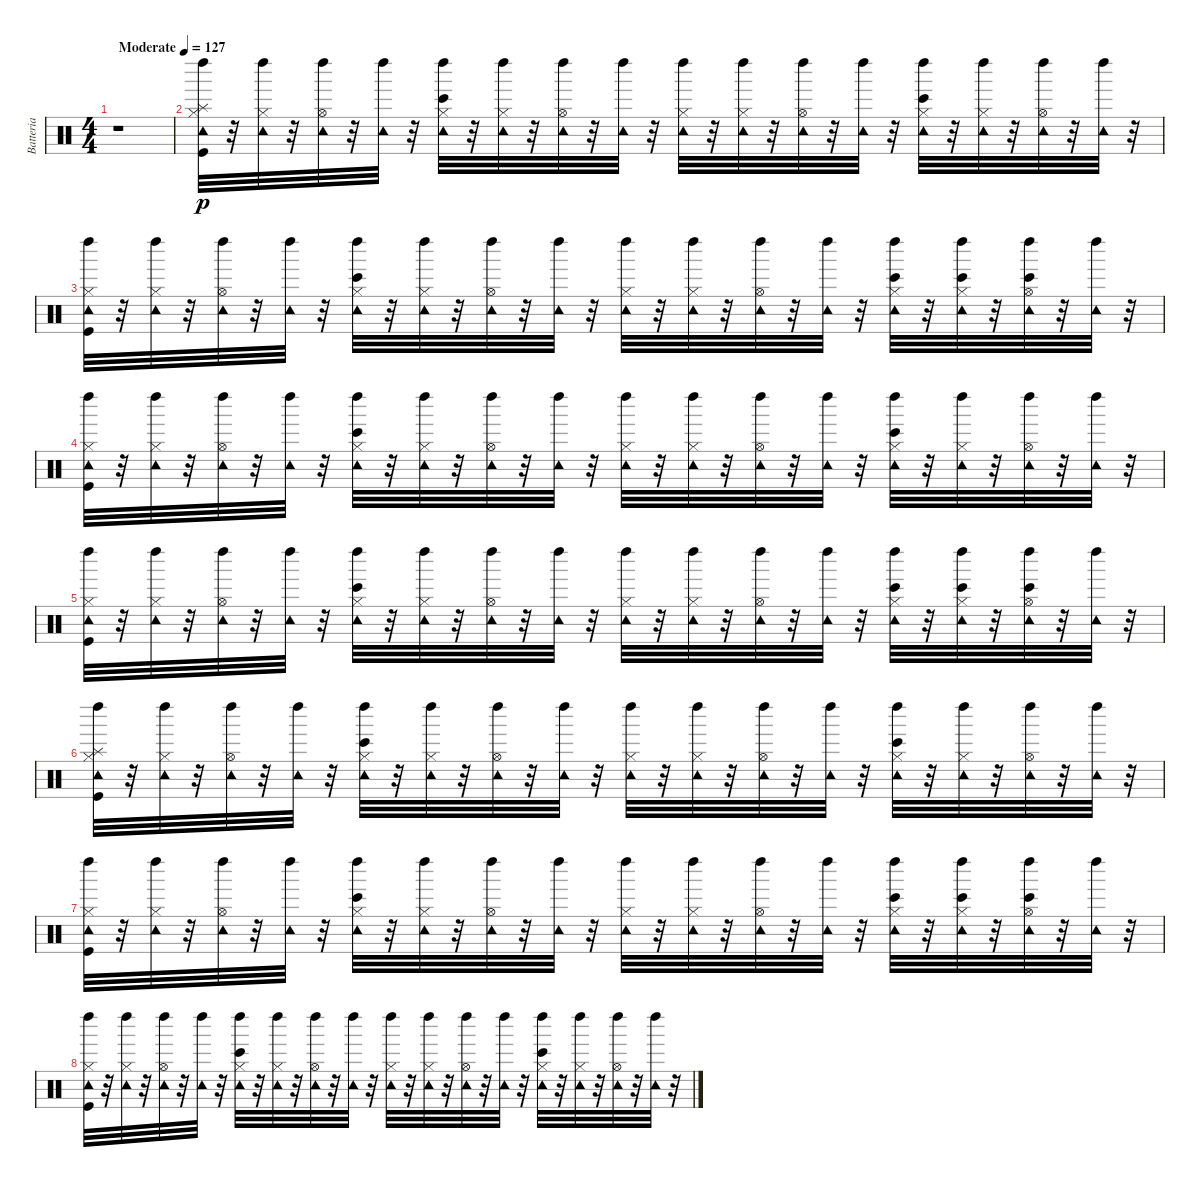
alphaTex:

\track ("Batteria" "Batteria") {instrument percussion}
\staff {score}
\articulation defaults
\ts (4 4)
\tempo (127 "Moderate")
\clef neutral
\ks c
r.1{dy p} |
("Kick (hit)" "Hi-Hat (closed)" "Tambourine (hit)" "Splash (hit)" "Left Maraca (hit)").32 r.32 ("Hi-Hat (closed)" "Tambourine (hit)" "Left Maraca (hit)").32 r.32 ("Hi-Hat (open)" "Tambourine (hit)" "Left Maraca (hit)").32 r.32 ("Tambourine (hit)" "Left Maraca (hit)").32 r.32 ("Bongo High (hit)" "Hi-Hat (closed)" "Tambourine (hit)" "Left Maraca (hit)").32 r.32 ("Hi-Hat (closed)" "Tambourine (hit)" "Left Maraca (hit)").32 r.32 ("Hi-Hat (open)" "Tambourine (hit)" "Left Maraca (hit)").32 r.32 ("Tambourine (hit)" "Left Maraca (hit)").32 r.32 ("Hi-Hat (closed)" "Tambourine (hit)" "Left Maraca (hit)").32 r.32 ("Hi-Hat (closed)" "Tambourine (hit)" "Left Maraca (hit)").32 r.32 ("Hi-Hat (open)" "Tambourine (hit)" "Left Maraca (hit)").32 r.32 ("Tambourine (hit)" "Left Maraca (hit)").32 r.32 ("Bongo High (hit)" "Hi-Hat (closed)" "Tambourine (hit)" "Left Maraca (hit)").32 r.32 ("Hi-Hat (closed)" "Tambourine (hit)" "Left Maraca (hit)").32 r.32 ("Hi-Hat (open)" "Tambourine (hit)" "Left Maraca (hit)").32 r.32 ("Tambourine (hit)" "Left Maraca (hit)").32 r.32 |
("Kick (hit)" "Hi-Hat (closed)" "Tambourine (hit)" "Left Maraca (hit)").32 r.32 ("Hi-Hat (closed)" "Tambourine (hit)" "Left Maraca (hit)").32 r.32 ("Hi-Hat (open)" "Tambourine (hit)" "Left Maraca (hit)").32 r.32 ("Tambourine (hit)" "Left Maraca (hit)").32 r.32 ("Bongo High (hit)" "Hi-Hat (closed)" "Tambourine (hit)" "Left Maraca (hit)").32 r.32 ("Hi-Hat (closed)" "Tambourine (hit)" "Left Maraca (hit)").32 r.32 ("Hi-Hat (open)" "Tambourine (hit)" "Left Maraca (hit)").32 r.32 ("Tambourine (hit)" "Left Maraca (hit)").32 r.32 ("Hi-Hat (closed)" "Tambourine (hit)" "Left Maraca (hit)").32 r.32 ("Hi-Hat (closed)" "Tambourine (hit)" "Left Maraca (hit)").32 r.32 ("Hi-Hat (open)" "Tambourine (hit)" "Left Maraca (hit)").32 r.32 ("Tambourine (hit)" "Left Maraca (hit)").32 r.32 ("Bongo High (hit)" "Hi-Hat (closed)" "Tambourine (hit)" "Left Maraca (hit)").32 r.32 ("Bongo High (hit)" "Hi-Hat (closed)" "Tambourine (hit)" "Left Maraca (hit)").32 r.32 ("Bongo High (hit)" "Hi-Hat (open)" "Tambourine (hit)" "Left Maraca (hit)").32 r.32 ("Tambourine (hit)" "Left Maraca (hit)").32 r.32 |
("Kick (hit)" "Hi-Hat (closed)" "Tambourine (hit)" "Left Maraca (hit)").32 r.32 ("Hi-Hat (closed)" "Tambourine (hit)" "Left Maraca (hit)").32 r.32 ("Hi-Hat (open)" "Tambourine (hit)" "Left Maraca (hit)").32 r.32 ("Tambourine (hit)" "Left Maraca (hit)").32 r.32 ("Bongo High (hit)" "Hi-Hat (closed)" "Tambourine (hit)" "Left Maraca (hit)").32 r.32 ("Hi-Hat (closed)" "Tambourine (hit)" "Left Maraca (hit)").32 r.32 ("Hi-Hat (open)" "Tambourine (hit)" "Left Maraca (hit)").32 r.32 ("Tambourine (hit)" "Left Maraca (hit)").32 r.32 ("Hi-Hat (closed)" "Tambourine (hit)" "Left Maraca (hit)").32 r.32 ("Hi-Hat (closed)" "Tambourine (hit)" "Left Maraca (hit)").32 r.32 ("Hi-Hat (open)" "Tambourine (hit)" "Left Maraca (hit)").32 r.32 ("Tambourine (hit)" "Left Maraca (hit)").32 r.32 ("Bongo High (hit)" "Hi-Hat (closed)" "Tambourine (hit)" "Left Maraca (hit)").32 r.32 ("Hi-Hat (closed)" "Tambourine (hit)" "Left Maraca (hit)").32 r.32 ("Hi-Hat (open)" "Tambourine (hit)" "Left Maraca (hit)").32 r.32 ("Tambourine (hit)" "Left Maraca (hit)").32 r.32 |
("Kick (hit)" "Hi-Hat (closed)" "Tambourine (hit)" "Left Maraca (hit)").32 r.32 ("Hi-Hat (closed)" "Tambourine (hit)" "Left Maraca (hit)").32 r.32 ("Hi-Hat (open)" "Tambourine (hit)" "Left Maraca (hit)").32 r.32 ("Tambourine (hit)" "Left Maraca (hit)").32 r.32 ("Bongo High (hit)" "Hi-Hat (closed)" "Tambourine (hit)" "Left Maraca (hit)").32 r.32 ("Hi-Hat (closed)" "Tambourine (hit)" "Left Maraca (hit)").32 r.32 ("Hi-Hat (open)" "Tambourine (hit)" "Left Maraca (hit)").32 r.32 ("Tambourine (hit)" "Left Maraca (hit)").32 r.32 ("Hi-Hat (closed)" "Tambourine (hit)" "Left Maraca (hit)").32 r.32 ("Hi-Hat (closed)" "Tambourine (hit)" "Left Maraca (hit)").32 r.32 ("Hi-Hat (open)" "Tambourine (hit)" "Left Maraca (hit)").32 r.32 ("Tambourine (hit)" "Left Maraca (hit)").32 r.32 ("Bongo High (hit)" "Hi-Hat (closed)" "Tambourine (hit)" "Left Maraca (hit)").32 r.32 ("Bongo High (hit)" "Hi-Hat (closed)" "Tambourine (hit)" "Left Maraca (hit)").32 r.32 ("Bongo High (hit)" "Hi-Hat (open)" "Tambourine (hit)" "Left Maraca (hit)").32 r.32 ("Tambourine (hit)" "Left Maraca (hit)").32 r.32 |
("Kick (hit)" "Hi-Hat (closed)" "Tambourine (hit)" "Splash (hit)" "Left Maraca (hit)").32 r.32 ("Hi-Hat (closed)" "Tambourine (hit)" "Left Maraca (hit)").32 r.32 ("Hi-Hat (open)" "Tambourine (hit)" "Left Maraca (hit)").32 r.32 ("Tambourine (hit)" "Left Maraca (hit)").32 r.32 ("Bongo High (hit)" "Hi-Hat (closed)" "Tambourine (hit)" "Left Maraca (hit)").32 r.32 ("Hi-Hat (closed)" "Tambourine (hit)" "Left Maraca (hit)").32 r.32 ("Hi-Hat (open)" "Tambourine (hit)" "Left Maraca (hit)").32 r.32 ("Tambourine (hit)" "Left Maraca (hit)").32 r.32 ("Hi-Hat (closed)" "Tambourine (hit)" "Left Maraca (hit)").32 r.32 ("Hi-Hat (closed)" "Tambourine (hit)" "Left Maraca (hit)").32 r.32 ("Hi-Hat (open)" "Tambourine (hit)" "Left Maraca (hit)").32 r.32 ("Tambourine (hit)" "Left Maraca (hit)").32 r.32 ("Bongo High (hit)" "Hi-Hat (closed)" "Tambourine (hit)" "Left Maraca (hit)").32 r.32 ("Hi-Hat (closed)" "Tambourine (hit)" "Left Maraca (hit)").32 r.32 ("Hi-Hat (open)" "Tambourine (hit)" "Left Maraca (hit)").32 r.32 ("Tambourine (hit)" "Left Maraca (hit)").32 r.32 |
("Kick (hit)" "Hi-Hat (closed)" "Tambourine (hit)" "Left Maraca (hit)").32 r.32 ("Hi-Hat (closed)" "Tambourine (hit)" "Left Maraca (hit)").32 r.32 ("Hi-Hat (open)" "Tambourine (hit)" "Left Maraca (hit)").32 r.32 ("Tambourine (hit)" "Left Maraca (hit)").32 r.32 ("Bongo High (hit)" "Hi-Hat (closed)" "Tambourine (hit)" "Left Maraca (hit)").32 r.32 ("Hi-Hat (closed)" "Tambourine (hit)" "Left Maraca (hit)").32 r.32 ("Hi-Hat (open)" "Tambourine (hit)" "Left Maraca (hit)").32 r.32 ("Tambourine (hit)" "Left Maraca (hit)").32 r.32 ("Hi-Hat (closed)" "Tambourine (hit)" "Left Maraca (hit)").32 r.32 ("Hi-Hat (closed)" "Tambourine (hit)" "Left Maraca (hit)").32 r.32 ("Hi-Hat (open)" "Tambourine (hit)" "Left Maraca (hit)").32 r.32 ("Tambourine (hit)" "Left Maraca (hit)").32 r.32 ("Bongo High (hit)" "Hi-Hat (closed)" "Tambourine (hit)" "Left Maraca (hit)").32 r.32 ("Bongo High (hit)" "Hi-Hat (closed)" "Tambourine (hit)" "Left Maraca (hit)").32 r.32 ("Bongo High (hit)" "Hi-Hat (open)" "Tambourine (hit)" "Left Maraca (hit)").32 r.32 ("Tambourine (hit)" "Left Maraca (hit)").32 r.32 |
("Kick (hit)" "Hi-Hat (closed)" "Tambourine (hit)" "Left Maraca (hit)").32 r.32 ("Hi-Hat (closed)" "Tambourine (hit)" "Left Maraca (hit)").32 r.32 ("Hi-Hat (open)" "Tambourine (hit)" "Left Maraca (hit)").32 r.32 ("Tambourine (hit)" "Left Maraca (hit)").32 r.32 ("Bongo High (hit)" "Hi-Hat (closed)" "Tambourine (hit)" "Left Maraca (hit)").32 r.32 ("Hi-Hat (closed)" "Tambourine (hit)" "Left Maraca (hit)").32 r.32 ("Hi-Hat (open)" "Tambourine (hit)" "Left Maraca (hit)").32 r.32 ("Tambourine (hit)" "Left Maraca (hit)").32 r.32 ("Hi-Hat (closed)" "Tambourine (hit)" "Left Maraca (hit)").32 r.32 ("Hi-Hat (closed)" "Tambourine (hit)" "Left Maraca (hit)").32 r.32 ("Hi-Hat (open)" "Tambourine (hit)" "Left Maraca (hit)").32 r.32 ("Tambourine (hit)" "Left Maraca (hit)").32 r.32 ("Bongo High (hit)" "Hi-Hat (closed)" "Tambourine (hit)" "Left Maraca (hit)").32 r.32 ("Hi-Hat (closed)" "Tambourine (hit)" "Left Maraca (hit)").32 r.32 ("Hi-Hat (open)" "Tambourine (hit)" "Left Maraca (hit)").32 r.32 ("Tambourine (hit)" "Left Maraca (hit)").32 r.32
